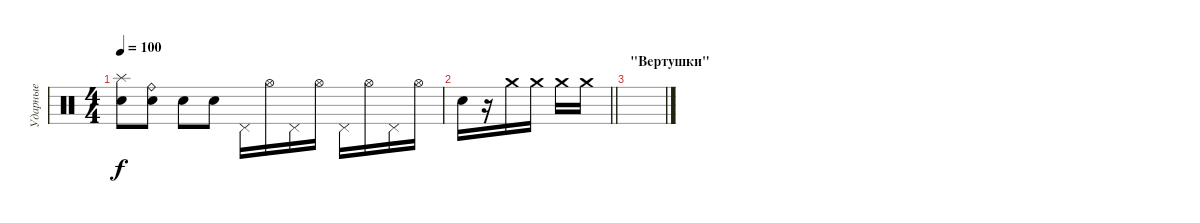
\track ("Ударные" "Ударные") {instrument percussion}
\staff {score}
\articulation defaults
\ts (4 4)
\tempo 100
\clef neutral
\ks c
("Splash (hit)" "Electric Snare (hit)").8{dy f} ("Ride (bell)" "Electric Snare (hit)").8 "Electric Snare (hit)".8 "Electric Snare (hit)".8 "Pedal Hi-Hat (hit)".16 "Hi-Hat (open)".16 "Pedal Hi-Hat (hit)".16 "Hi-Hat (open)".16 "Pedal Hi-Hat (hit)".16 "Hi-Hat (open)".16 "Pedal Hi-Hat (hit)".16 "Hi-Hat (open)".16 |
\barLineRight lightlight "Electric Snare (hit)".16
r.16 "Crash medium (hit)".16 "Crash medium (hit)".16 "Crash medium (hit)".16 "Crash medium (hit)".16 |
\section ("" "\"Вертушки\"")
